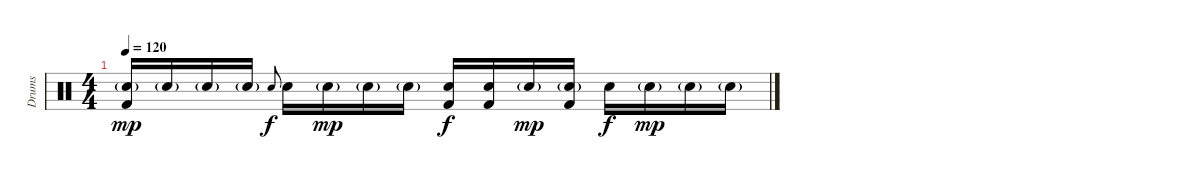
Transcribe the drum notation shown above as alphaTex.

\track ("Drums" "Drums") {instrument percussion}
\staff {score}
\articulation defaults
\ts (4 4)
\tempo 120
\clef neutral
\ks c
("Electric Snare (hit)"{g} "Kick (hit) 2").16{dy mp} "Electric Snare (hit)"{g}.16 "Electric Snare (hit)"{g}.16 "Electric Snare (hit)"{g}.16 "Electric Snare (hit)".8{gr onbeat dy f} "Electric Snare (hit)".16 "Electric Snare (hit)"{g}.16{dy mp} "Electric Snare (hit)"{g}.16 "Electric Snare (hit)"{g}.16 ("Electric Snare (hit)" "Kick (hit) 2").16{dy f} ("Electric Snare (hit)" "Kick (hit) 2").16 "Electric Snare (hit)"{g}.16{dy mp} ("Electric Snare (hit)"{g} "Kick (hit) 2").16 "Electric Snare (hit)".16{dy f} "Electric Snare (hit)"{g}.16{dy mp} "Electric Snare (hit)"{g}.16 "Electric Snare (hit)"{g}.16
